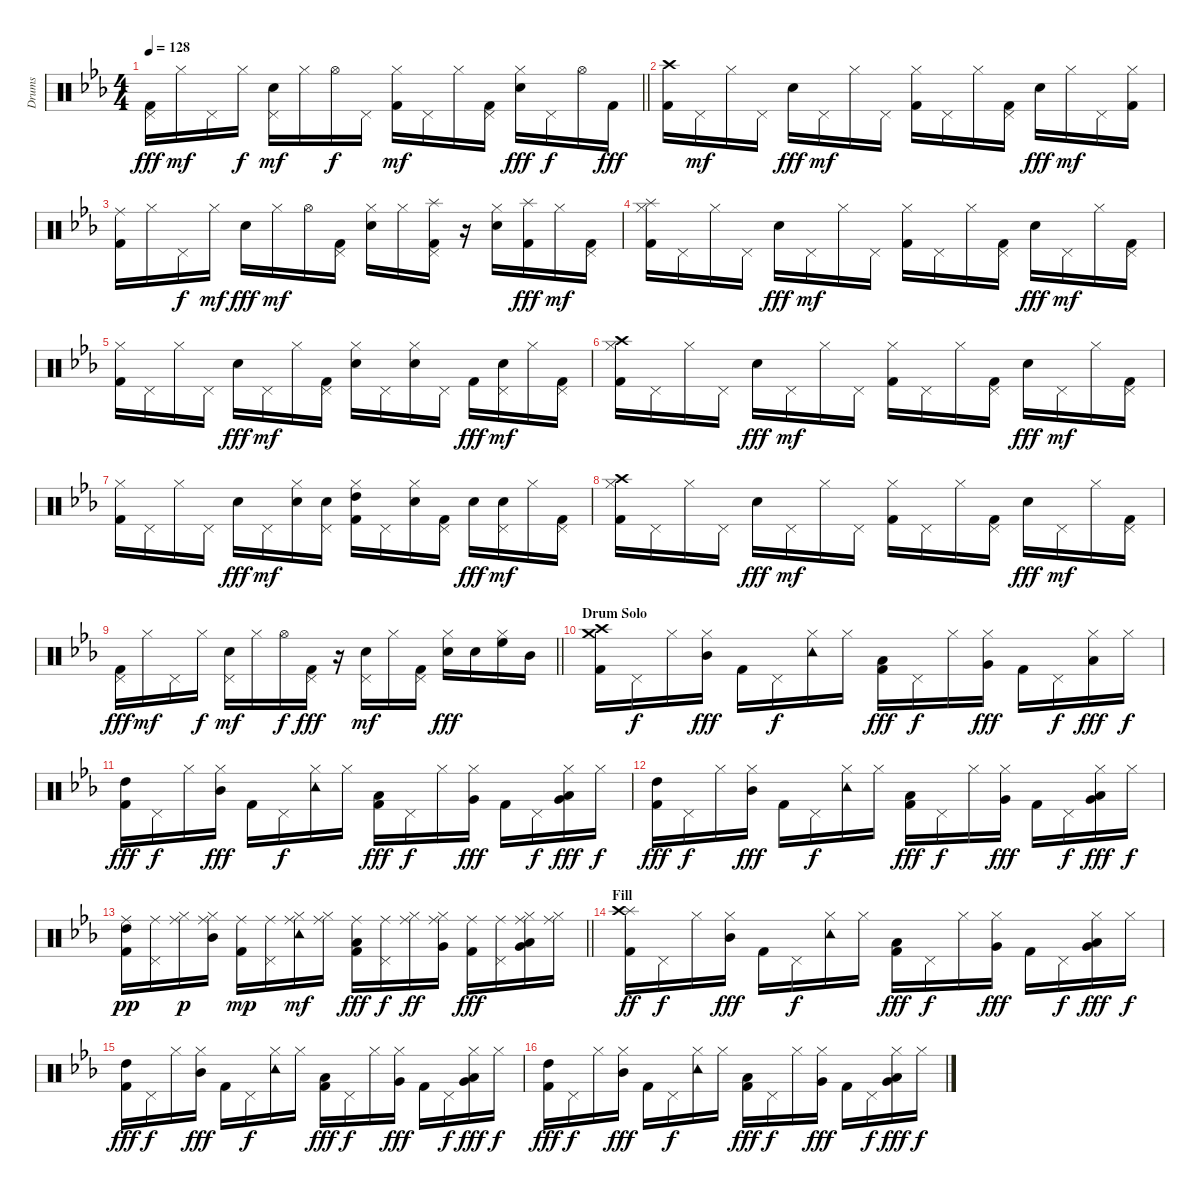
\track ("Drums" "Drums") {instrument percussion}
\staff {score}
\articulation defaults
\ts (4 4)
\tempo 128
\clef neutral
\barLineRight lightlight
\ks cminor
("Kick (hit) 2" "Pedal Hi-Hat (hit)").16{dy fff} "Hi-Hat (closed)".16{dy mf} "Pedal Hi-Hat (hit)".16 "Hi-Hat (closed)".16{dy f} ("Electric Snare (hit)" "Pedal Hi-Hat (hit)").16{dy mf} "Hi-Hat (closed)".16 "Hi-Hat (open)".16{dy f} "Pedal Hi-Hat (hit)".16 ("Kick (hit) 2" "Hi-Hat (closed)").16{dy mf} "Pedal Hi-Hat (hit)".16 "Hi-Hat (closed)".16 ("Kick (hit) 2" "Pedal Hi-Hat (hit)").16 ("Electric Snare (hit)" "Hi-Hat (closed)").16{dy fff} "Pedal Hi-Hat (hit)".16{dy f} "Hi-Hat (open)".16 "Kick (hit) 2".16{dy fff} |
("Kick (hit) 2" "Crash high (hit)").16 "Pedal Hi-Hat (hit)".16{dy mf} "Hi-Hat (closed)".16 "Pedal Hi-Hat (hit)".16 "Electric Snare (hit)".16{dy fff} "Pedal Hi-Hat (hit)".16{dy mf} "Hi-Hat (closed)".16 "Pedal Hi-Hat (hit)".16 ("Kick (hit) 2" "Hi-Hat (closed)").16 "Pedal Hi-Hat (hit)".16 "Hi-Hat (closed)".16 ("Kick (hit) 2" "Pedal Hi-Hat (hit)").16 "Electric Snare (hit)".16{dy fff} "Hi-Hat (closed)".16{dy mf} "Pedal Hi-Hat (hit)".16 ("Kick (hit) 2" "Hi-Hat (closed)").16 |
("Kick (hit) 2" "Ride (middle)").16 "Hi-Hat (closed)".16 "Pedal Hi-Hat (hit)".16{dy f} "Hi-Hat (closed)".16{dy mf} "Electric Snare (hit)".16{dy fff} "Hi-Hat (closed)".16{dy mf} "Hi-Hat (open)".16 ("Kick (hit) 2" "Pedal Hi-Hat (hit)").16 ("Electric Snare (hit)" "Hi-Hat (closed)").16 "Hi-Hat (closed)".16 ("Kick (hit) 2" "Splash (hit)" "Pedal Hi-Hat (hit)").16 r.16 ("Electric Snare (hit)" "Hi-Hat (closed)").16 ("Kick (hit) 2" "Splash (hit)").16{dy fff} "Hi-Hat (closed)".16{dy mf} ("Kick (hit) 2" "Pedal Hi-Hat (hit)").16 |
("Splash (hit)" "Kick (hit) 2" "Hi-Hat (closed)").16 "Pedal Hi-Hat (hit)".16 "Hi-Hat (closed)".16 "Pedal Hi-Hat (hit)".16 "Electric Snare (hit)".16{dy fff} "Pedal Hi-Hat (hit)".16{dy mf} "Hi-Hat (closed)".16 "Pedal Hi-Hat (hit)".16 ("Kick (hit) 2" "Hi-Hat (closed)").16 "Pedal Hi-Hat (hit)".16 "Hi-Hat (closed)".16 ("Kick (hit) 2" "Pedal Hi-Hat (hit)").16 "Electric Snare (hit)".16{dy fff} "Pedal Hi-Hat (hit)".16{dy mf} "Hi-Hat (closed)".16 ("Kick (hit) 2" "Pedal Hi-Hat (hit)").16 |
("Kick (hit) 2" "Hi-Hat (closed)").16 "Pedal Hi-Hat (hit)".16 "Hi-Hat (closed)".16 "Pedal Hi-Hat (hit)".16 "Electric Snare (hit)".16{dy fff} "Pedal Hi-Hat (hit)".16{dy mf} "Hi-Hat (closed)".16 ("Kick (hit) 2" "Pedal Hi-Hat (hit)").16 ("Electric Snare (hit)" "Hi-Hat (closed)").16 "Pedal Hi-Hat (hit)".16 ("Electric Snare (hit)" "Hi-Hat (closed)").16 "Pedal Hi-Hat (hit)".16 "Kick (hit) 2".16{dy fff} ("Electric Snare (hit)" "Pedal Hi-Hat (hit)").16{dy mf} "Hi-Hat (closed)".16 ("Kick (hit) 2" "Pedal Hi-Hat (hit)").16 |
("Crash high (hit)" "Kick (hit) 2" "Hi-Hat (closed)").16 "Pedal Hi-Hat (hit)".16 "Hi-Hat (closed)".16 "Pedal Hi-Hat (hit)".16 "Electric Snare (hit)".16{dy fff} "Pedal Hi-Hat (hit)".16{dy mf} "Hi-Hat (closed)".16 "Pedal Hi-Hat (hit)".16 ("Kick (hit) 2" "Hi-Hat (closed)").16 "Pedal Hi-Hat (hit)".16 "Hi-Hat (closed)".16 ("Kick (hit) 2" "Pedal Hi-Hat (hit)").16 "Electric Snare (hit)".16{dy fff} "Pedal Hi-Hat (hit)".16{dy mf} "Hi-Hat (closed)".16 ("Kick (hit) 2" "Pedal Hi-Hat (hit)").16 |
("Kick (hit) 2" "Hi-Hat (closed)").16 "Pedal Hi-Hat (hit)".16 "Hi-Hat (closed)".16 "Pedal Hi-Hat (hit)".16 "Electric Snare (hit)".16{dy fff} "Pedal Hi-Hat (hit)".16{dy mf} ("Electric Snare (hit)" "Hi-Hat (closed)").16 ("Electric Snare (hit)" "Pedal Hi-Hat (hit)").16 ("High Tom (hit)" "Kick (hit) 2" "Hi-Hat (closed)").16 "Pedal Hi-Hat (hit)".16 ("Electric Snare (hit)" "Hi-Hat (closed)").16 ("Kick (hit) 2" "Pedal Hi-Hat (hit)").16 "Electric Snare (hit)".16{dy fff} ("Electric Snare (hit)" "Pedal Hi-Hat (hit)").16{dy mf} "Hi-Hat (closed)".16 ("Kick (hit) 2" "Pedal Hi-Hat (hit)").16 |
("Crash high (hit)" "Kick (hit) 2" "Hi-Hat (closed)").16 "Pedal Hi-Hat (hit)".16 "Hi-Hat (closed)".16 "Pedal Hi-Hat (hit)".16 "Electric Snare (hit)".16{dy fff} "Pedal Hi-Hat (hit)".16{dy mf} "Hi-Hat (closed)".16 "Pedal Hi-Hat (hit)".16 ("Kick (hit) 2" "Hi-Hat (closed)").16 "Pedal Hi-Hat (hit)".16 "Hi-Hat (closed)".16 ("Kick (hit) 2" "Pedal Hi-Hat (hit)").16 "Electric Snare (hit)".16{dy fff} "Pedal Hi-Hat (hit)".16{dy mf} "Hi-Hat (closed)".16 ("Kick (hit) 2" "Pedal Hi-Hat (hit)").16 |
\barLineRight lightlight
("Kick (hit) 2" "Pedal Hi-Hat (hit)").16{dy fff} "Hi-Hat (closed)".16{dy mf} "Pedal Hi-Hat (hit)".16 "Hi-Hat (closed)".16{dy f} ("Electric Snare (hit)" "Pedal Hi-Hat (hit)").16{dy mf} "Hi-Hat (closed)".16 "Hi-Hat (open)".16{dy f} ("Kick (hit) 2" "Pedal Hi-Hat (hit)").16{dy fff} r.16 ("Electric Snare (hit)" "Pedal Hi-Hat (hit)").16{dy mf} "Hi-Hat (closed)".16 ("Kick (hit) 2" "Pedal Hi-Hat (hit)").16 ("Electric Snare (hit)" "Hi-Hat (closed)").16{dy fff} "Electric Snare (hit)".16 ("High Floor Tom (hit)" "Hi-Hat (closed)").16 "Mid Tom (hit)".16 |
\section ("" "Drum Solo")
("Crash high (hit)" "Kick (hit) 2" "Crash medium (hit)").16 "Pedal Hi-Hat (hit)".16{dy f} "Hi-Hat (closed)".16 ("Mid Tom (hit)" "Hi-Hat (closed)").16{dy fff} "Kick (hit) 2".16 "Pedal Hi-Hat (hit)".16{dy f} ("Tambourine (hit)" "Hi-Hat (closed)").16 "Hi-Hat (closed)".16 ("Kick (hit) 2" "Low Tom (hit)").16{dy fff} "Pedal Hi-Hat (hit)".16{dy f} "Hi-Hat (closed)".16 ("Very Low Tom (hit)" "Hi-Hat (closed)").16{dy fff} "Kick (hit) 2".16 "Pedal Hi-Hat (hit)".16{dy f} ("Low Floor Tom (hit)" "Hi-Hat (closed)").16{dy fff} "Hi-Hat (closed)".16{dy f} |
("High Tom (hit)" "Kick (hit) 2").16{dy fff} "Pedal Hi-Hat (hit)".16{dy f} "Hi-Hat (closed)".16 ("Mid Tom (hit)" "Hi-Hat (closed)").16{dy fff} "Kick (hit) 2".16 "Pedal Hi-Hat (hit)".16{dy f} ("Tambourine (hit)" "Hi-Hat (closed)").16 "Hi-Hat (closed)".16 ("Low Tom (hit)" "Kick (hit) 2").16{dy fff} "Pedal Hi-Hat (hit)".16{dy f} "Hi-Hat (closed)".16 ("Very Low Tom (hit)" "Hi-Hat (closed)").16{dy fff} "Kick (hit) 2".16 "Pedal Hi-Hat (hit)".16{dy f} ("Low Floor Tom (hit)" "Very Low Tom (hit)" "Hi-Hat (closed)").16{dy fff} "Hi-Hat (closed)".16{dy f} |
("High Tom (hit)" "Kick (hit) 2").16{dy fff} "Pedal Hi-Hat (hit)".16{dy f} "Hi-Hat (closed)".16 ("Mid Tom (hit)" "Hi-Hat (closed)").16{dy fff} "Kick (hit) 2".16 "Pedal Hi-Hat (hit)".16{dy f} ("Tambourine (hit)" "Hi-Hat (closed)").16 "Hi-Hat (closed)".16 ("Low Tom (hit)" "Kick (hit) 2").16{dy fff} "Pedal Hi-Hat (hit)".16{dy f} "Hi-Hat (closed)".16 ("Very Low Tom (hit)" "Hi-Hat (closed)").16{dy fff} "Kick (hit) 2".16 "Pedal Hi-Hat (hit)".16{dy f} ("Low Floor Tom (hit)" "Very Low Tom (hit)" "Hi-Hat (closed)").16{dy fff} "Hi-Hat (closed)".16{dy f} |
\barLineRight lightlight
("High Tom (hit)" "Kick (hit) 2" "Ride (middle)").16{dy pp} ("Pedal Hi-Hat (hit)" "Ride (middle)").16 ("Hi-Hat (closed)" "Ride (middle)").16{dy p} ("Mid Tom (hit)" "Hi-Hat (closed)" "Ride (middle)").16 ("Kick (hit) 2" "Ride (middle)").16{dy mp} ("Pedal Hi-Hat (hit)" "Ride (middle)").16 ("Tambourine (hit)" "Hi-Hat (closed)" "Ride (middle)").16{dy mf} ("Hi-Hat (closed)" "Ride (middle)").16 ("Low Tom (hit)" "Kick (hit) 2" "Ride (middle)").16{dy fff} ("Pedal Hi-Hat (hit)" "Ride (middle)").16{dy f} ("Hi-Hat (closed)" "Ride (middle)").16{dy ff} ("Very Low Tom (hit)" "Hi-Hat (closed)" "Ride (middle)").16 ("Kick (hit) 2" "Ride (middle)").16{dy fff} ("Pedal Hi-Hat (hit)" "Ride (middle)").16 ("Low Floor Tom (hit)" "Very Low Tom (hit)" "Hi-Hat (closed)" "Ride (middle)").16 ("Hi-Hat (closed)" "Ride (middle)").16 |
\section ("" "Fill")
("Splash (hit)" "Kick (hit) 2" "Crash high (hit)").16{dy ff} "Pedal Hi-Hat (hit)".16{dy f} "Hi-Hat (closed)".16 ("Mid Tom (hit)" "Hi-Hat (closed)").16{dy fff} "Kick (hit) 2".16 "Pedal Hi-Hat (hit)".16{dy f} ("Tambourine (hit)" "Hi-Hat (closed)").16 "Hi-Hat (closed)".16 ("Low Tom (hit)" "Kick (hit) 2").16{dy fff} "Pedal Hi-Hat (hit)".16{dy f} "Hi-Hat (closed)".16 ("Very Low Tom (hit)" "Hi-Hat (closed)").16{dy fff} "Kick (hit) 2".16 "Pedal Hi-Hat (hit)".16{dy f} ("Very Low Tom (hit)" "Low Floor Tom (hit)" "Hi-Hat (closed)").16{dy fff} "Hi-Hat (closed)".16{dy f} |
("High Tom (hit)" "Kick (hit) 2").16{dy fff} "Pedal Hi-Hat (hit)".16{dy f} "Hi-Hat (closed)".16 ("Mid Tom (hit)" "Hi-Hat (closed)").16{dy fff} "Kick (hit) 2".16 "Pedal Hi-Hat (hit)".16{dy f} ("Tambourine (hit)" "Hi-Hat (closed)").16 "Hi-Hat (closed)".16 ("Low Tom (hit)" "Kick (hit) 2").16{dy fff} "Pedal Hi-Hat (hit)".16{dy f} "Hi-Hat (closed)".16 ("Very Low Tom (hit)" "Hi-Hat (closed)").16{dy fff} "Kick (hit) 2".16 "Pedal Hi-Hat (hit)".16{dy f} ("Low Floor Tom (hit)" "Very Low Tom (hit)" "Hi-Hat (closed)").16{dy fff} "Hi-Hat (closed)".16{dy f} |
("High Tom (hit)" "Kick (hit) 2").16{dy fff} "Pedal Hi-Hat (hit)".16{dy f} "Hi-Hat (closed)".16 ("Mid Tom (hit)" "Hi-Hat (closed)").16{dy fff} "Kick (hit) 2".16 "Pedal Hi-Hat (hit)".16{dy f} ("Tambourine (hit)" "Hi-Hat (closed)").16 "Hi-Hat (closed)".16 ("Low Tom (hit)" "Kick (hit) 2").16{dy fff} "Pedal Hi-Hat (hit)".16{dy f} "Hi-Hat (closed)".16 ("Very Low Tom (hit)" "Hi-Hat (closed)").16{dy fff} "Kick (hit) 2".16 "Pedal Hi-Hat (hit)".16{dy f} ("Low Floor Tom (hit)" "Very Low Tom (hit)" "Hi-Hat (closed)").16{dy fff} "Hi-Hat (closed)".16{dy f}
